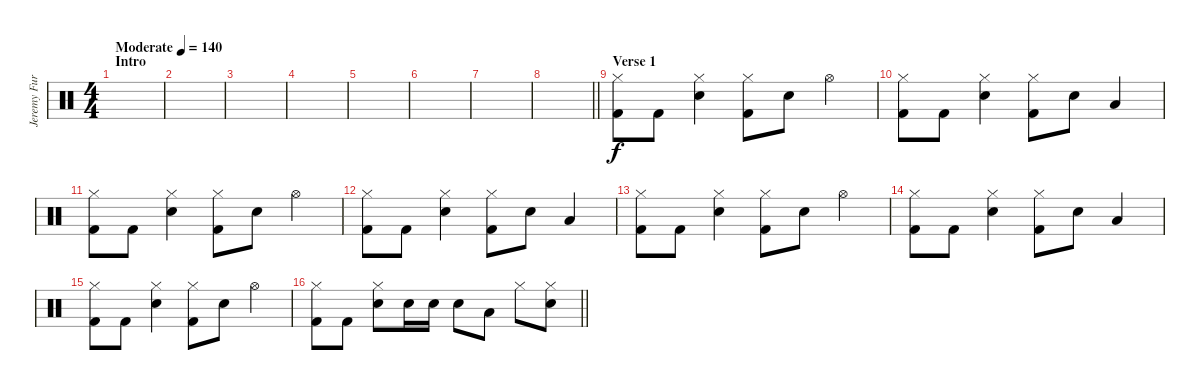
\track ("Jeremy Furstenfeld" "Jeremy Fur") {instrument percussion}
\staff {score}
\articulation defaults
\ts (4 4)
\section ("" "Intro")
\tempo (140 "Moderate")
\clef neutral
\ks c
|
|
|
|
|
|
|
\barLineRight lightlight
|
\section ("" "Verse 1")
("Hi-Hat (closed)" "Kick (hit) 2").8 "Kick (hit) 2".8 ("Hi-Hat (closed)" "Snare (hit) 2").4 ("Hi-Hat (closed)" "Kick (hit) 2").8 "Snare (hit) 2".8 "Hi-Hat (open)".4 |
("Hi-Hat (closed)" "Kick (hit) 2").8 "Kick (hit) 2".8 ("Hi-Hat (closed)" "Snare (hit) 2").4 ("Hi-Hat (closed)" "Kick (hit) 2").8 "Snare (hit) 2".8 "Low Floor Tom (hit)".4 |
("Hi-Hat (closed)" "Kick (hit) 2").8 "Kick (hit) 2".8 ("Hi-Hat (closed)" "Snare (hit) 2").4 ("Hi-Hat (closed)" "Kick (hit) 2").8 "Snare (hit) 2".8 "Hi-Hat (open)".4 |
("Hi-Hat (closed)" "Kick (hit) 2").8 "Kick (hit) 2".8 ("Hi-Hat (closed)" "Snare (hit) 2").4 ("Hi-Hat (closed)" "Kick (hit) 2").8 "Snare (hit) 2".8 "Low Floor Tom (hit)".4 |
("Hi-Hat (closed)" "Kick (hit) 2").8 "Kick (hit) 2".8 ("Hi-Hat (closed)" "Snare (hit) 2").4 ("Hi-Hat (closed)" "Kick (hit) 2").8 "Snare (hit) 2".8 "Hi-Hat (open)".4 |
("Hi-Hat (closed)" "Kick (hit) 2").8 "Kick (hit) 2".8 ("Hi-Hat (closed)" "Snare (hit) 2").4 ("Hi-Hat (closed)" "Kick (hit) 2").8 "Snare (hit) 2".8 "Low Floor Tom (hit)".4 |
("Hi-Hat (closed)" "Kick (hit) 2").8 "Kick (hit) 2".8 ("Hi-Hat (closed)" "Snare (hit) 2").4 ("Hi-Hat (closed)" "Kick (hit) 2").8 "Snare (hit) 2".8 "Hi-Hat (open)".4 |
\barLineRight lightlight
("Hi-Hat (closed)" "Kick (hit) 2").8 "Kick (hit) 2".8 ("Hi-Hat (closed)" "Snare (hit) 2").8 "Snare (hit) 2".16 "Snare (hit) 2".16 "Snare (hit) 2".8 "Low Tom (hit)".8 "Hi-Hat (closed)".8 ("Hi-Hat (closed)" "Snare (hit) 2").8
